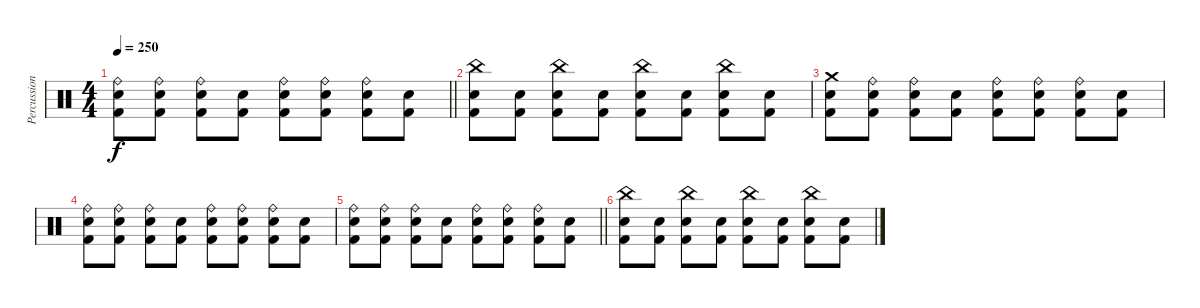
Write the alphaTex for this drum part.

\track ("Percussions" "Percussion") {instrument percussion}
\staff {score}
\articulation defaults
\ts (4 4)
\tempo 250
\clef neutral
\barLineRight lightlight
\ks c
("Ride (bell)" "Electric Snare (hit)" "Kick (hit) 2").8{dy f} ("Ride (bell)" "Electric Snare (hit)" "Kick (hit) 2").8 ("Ride (bell)" "Electric Snare (hit)" "Kick (hit) 2").8 ("Electric Snare (hit)" "Kick (hit) 2").8 ("Ride (bell)" "Electric Snare (hit)" "Kick (hit) 2").8 ("Ride (bell)" "Electric Snare (hit)" "Kick (hit) 2").8 ("Ride (bell)" "Electric Snare (hit)" "Kick (hit) 2").8 ("Electric Snare (hit)" "Kick (hit) 2").8 |
("China (hit)" "Electric Snare (hit)" "Kick (hit) 2").8 ("Electric Snare (hit)" "Kick (hit) 2").8 ("China (hit)" "Electric Snare (hit)" "Kick (hit) 2").8 ("Electric Snare (hit)" "Kick (hit) 2").8 ("China (hit)" "Electric Snare (hit)" "Kick (hit) 2").8 ("Electric Snare (hit)" "Kick (hit) 2").8 ("China (hit)" "Electric Snare (hit)" "Kick (hit) 2").8 ("Electric Snare (hit)" "Kick (hit) 2").8 |
("Crash medium (hit)" "Electric Snare (hit)" "Kick (hit) 2").8 ("Ride (bell)" "Electric Snare (hit)" "Kick (hit) 2").8 ("Ride (bell)" "Electric Snare (hit)" "Kick (hit) 2").8 ("Electric Snare (hit)" "Kick (hit) 2").8 ("Ride (bell)" "Electric Snare (hit)" "Kick (hit) 2").8 ("Ride (bell)" "Electric Snare (hit)" "Kick (hit) 2").8 ("Ride (bell)" "Electric Snare (hit)" "Kick (hit) 2").8 ("Electric Snare (hit)" "Kick (hit) 2").8 |
("Ride (bell)" "Electric Snare (hit)" "Kick (hit) 2").8 ("Ride (bell)" "Electric Snare (hit)" "Kick (hit) 2").8 ("Ride (bell)" "Electric Snare (hit)" "Kick (hit) 2").8 ("Electric Snare (hit)" "Kick (hit) 2").8 ("Ride (bell)" "Electric Snare (hit)" "Kick (hit) 2").8 ("Ride (bell)" "Electric Snare (hit)" "Kick (hit) 2").8 ("Ride (bell)" "Electric Snare (hit)" "Kick (hit) 2").8 ("Electric Snare (hit)" "Kick (hit) 2").8 |
\barLineRight lightlight
("Ride (bell)" "Electric Snare (hit)" "Kick (hit) 2").8 ("Ride (bell)" "Electric Snare (hit)" "Kick (hit) 2").8 ("Ride (bell)" "Electric Snare (hit)" "Kick (hit) 2").8 ("Electric Snare (hit)" "Kick (hit) 2").8 ("Ride (bell)" "Electric Snare (hit)" "Kick (hit) 2").8 ("Ride (bell)" "Electric Snare (hit)" "Kick (hit) 2").8 ("Ride (bell)" "Electric Snare (hit)" "Kick (hit) 2").8 ("Electric Snare (hit)" "Kick (hit) 2").8 |
("China (hit)" "Electric Snare (hit)" "Kick (hit) 2").8 ("Electric Snare (hit)" "Kick (hit) 2").8 ("China (hit)" "Electric Snare (hit)" "Kick (hit) 2").8 ("Electric Snare (hit)" "Kick (hit) 2").8 ("China (hit)" "Electric Snare (hit)" "Kick (hit) 2").8 ("Electric Snare (hit)" "Kick (hit) 2").8 ("China (hit)" "Electric Snare (hit)" "Kick (hit) 2").8 ("Electric Snare (hit)" "Kick (hit) 2").8
